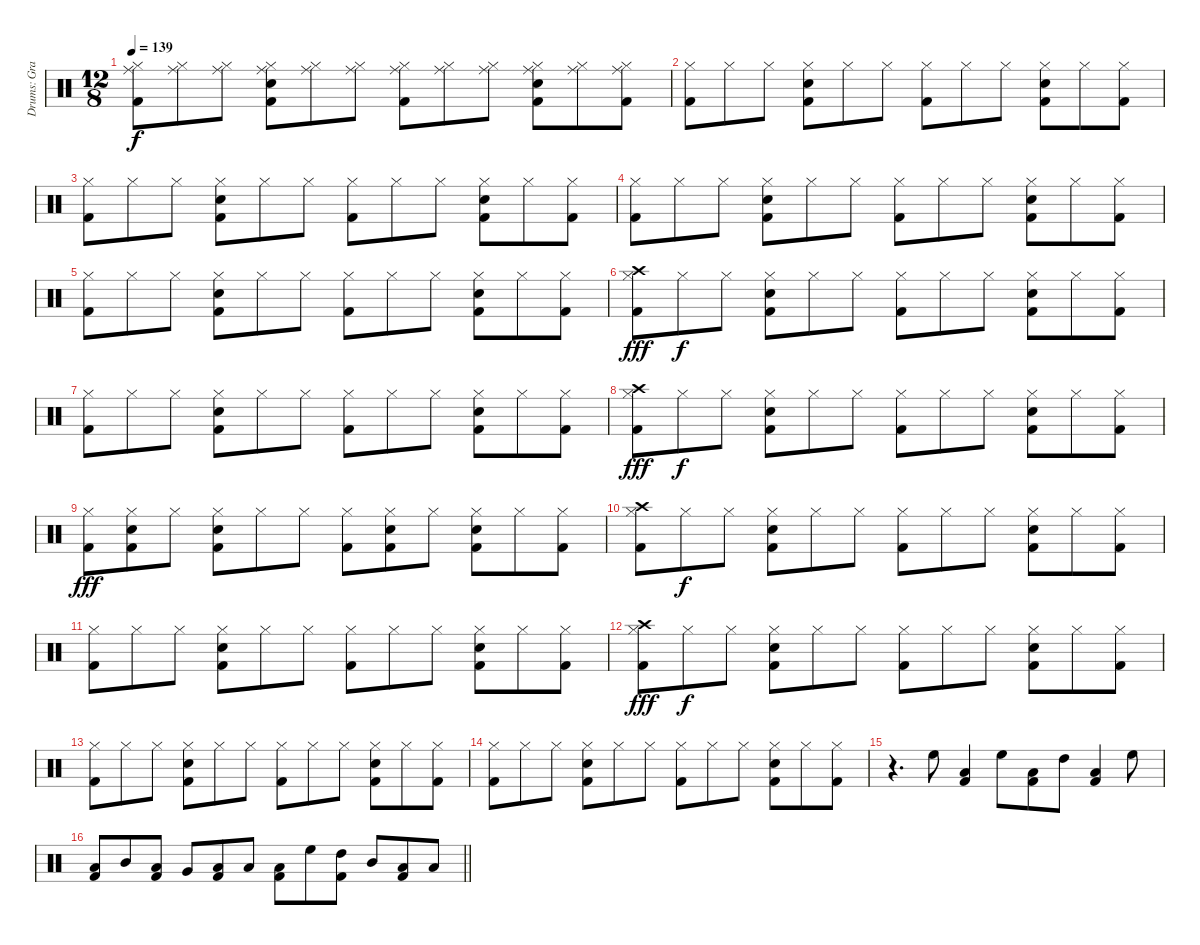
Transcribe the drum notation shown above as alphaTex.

\track ("Drums: Graeme Edge" "Drums: Gra") {instrument percussion}
\staff {score}
\articulation defaults
\ts (12 8)
\tempo 139
\clef neutral
\ks c
("Ride (middle)" "Hi-Hat (closed)" "Kick (hit) 2").8{dy f} ("Ride (middle)" "Hi-Hat (closed)").8 ("Ride (middle)" "Hi-Hat (closed)").8 ("Ride (middle)" "Hi-Hat (closed)" "Snare (hit) 2" "Kick (hit) 2").8 ("Ride (middle)" "Hi-Hat (closed)").8 ("Ride (middle)" "Hi-Hat (closed)").8 ("Ride (middle)" "Hi-Hat (closed)" "Kick (hit) 2").8 ("Ride (middle)" "Hi-Hat (closed)").8 ("Ride (middle)" "Hi-Hat (closed)").8 ("Ride (middle)" "Hi-Hat (closed)" "Snare (hit) 2" "Kick (hit) 2").8 ("Ride (middle)" "Hi-Hat (closed)").8 ("Ride (middle)" "Hi-Hat (closed)" "Kick (hit) 2").8 |
("Hi-Hat (closed)" "Kick (hit) 2").8 "Hi-Hat (closed)".8 "Hi-Hat (closed)".8 ("Hi-Hat (closed)" "Snare (hit) 2" "Kick (hit) 2").8 "Hi-Hat (closed)".8 "Hi-Hat (closed)".8 ("Hi-Hat (closed)" "Kick (hit) 2").8 "Hi-Hat (closed)".8 "Hi-Hat (closed)".8 ("Hi-Hat (closed)" "Snare (hit) 2" "Kick (hit) 2").8 "Hi-Hat (closed)".8 ("Hi-Hat (closed)" "Kick (hit) 2").8 |
("Hi-Hat (closed)" "Kick (hit) 2").8 "Hi-Hat (closed)".8 "Hi-Hat (closed)".8 ("Hi-Hat (closed)" "Snare (hit) 2" "Kick (hit) 2").8 "Hi-Hat (closed)".8 "Hi-Hat (closed)".8 ("Hi-Hat (closed)" "Kick (hit) 2").8 "Hi-Hat (closed)".8 "Hi-Hat (closed)".8 ("Hi-Hat (closed)" "Snare (hit) 2" "Kick (hit) 2").8 "Hi-Hat (closed)".8 ("Hi-Hat (closed)" "Kick (hit) 2").8 |
("Hi-Hat (closed)" "Kick (hit) 2").8 "Hi-Hat (closed)".8 "Hi-Hat (closed)".8 ("Hi-Hat (closed)" "Snare (hit) 2" "Kick (hit) 2").8 "Hi-Hat (closed)".8 "Hi-Hat (closed)".8 ("Hi-Hat (closed)" "Kick (hit) 2").8 "Hi-Hat (closed)".8 "Hi-Hat (closed)".8 ("Hi-Hat (closed)" "Snare (hit) 2" "Kick (hit) 2").8 "Hi-Hat (closed)".8 ("Hi-Hat (closed)" "Kick (hit) 2").8 |
("Hi-Hat (closed)" "Kick (hit) 2").8 "Hi-Hat (closed)".8 "Hi-Hat (closed)".8 ("Hi-Hat (closed)" "Snare (hit) 2" "Kick (hit) 2").8 "Hi-Hat (closed)".8 "Hi-Hat (closed)".8 ("Hi-Hat (closed)" "Kick (hit) 2").8 "Hi-Hat (closed)".8 "Hi-Hat (closed)".8 ("Hi-Hat (closed)" "Snare (hit) 2" "Kick (hit) 2").8 "Hi-Hat (closed)".8 ("Hi-Hat (closed)" "Kick (hit) 2").8 |
("Crash high (hit)" "Hi-Hat (closed)" "Kick (hit) 2").8{dy fff} "Hi-Hat (closed)".8{dy f} "Hi-Hat (closed)".8 ("Hi-Hat (closed)" "Snare (hit) 2" "Kick (hit) 2").8 "Hi-Hat (closed)".8 "Hi-Hat (closed)".8 ("Hi-Hat (closed)" "Kick (hit) 2").8 "Hi-Hat (closed)".8 "Hi-Hat (closed)".8 ("Hi-Hat (closed)" "Snare (hit) 2" "Kick (hit) 2").8 "Hi-Hat (closed)".8 ("Hi-Hat (closed)" "Kick (hit) 2").8 |
("Hi-Hat (closed)" "Kick (hit) 2").8 "Hi-Hat (closed)".8 "Hi-Hat (closed)".8 ("Hi-Hat (closed)" "Snare (hit) 2" "Kick (hit) 2").8 "Hi-Hat (closed)".8 "Hi-Hat (closed)".8 ("Hi-Hat (closed)" "Kick (hit) 2").8 "Hi-Hat (closed)".8 "Hi-Hat (closed)".8 ("Hi-Hat (closed)" "Snare (hit) 2" "Kick (hit) 2").8 "Hi-Hat (closed)".8 ("Hi-Hat (closed)" "Kick (hit) 2").8 |
("Crash high (hit)" "Hi-Hat (closed)" "Kick (hit) 2").8{dy fff} "Hi-Hat (closed)".8{dy f} "Hi-Hat (closed)".8 ("Hi-Hat (closed)" "Snare (hit) 2" "Kick (hit) 2").8 "Hi-Hat (closed)".8 "Hi-Hat (closed)".8 ("Hi-Hat (closed)" "Kick (hit) 2").8 "Hi-Hat (closed)".8 "Hi-Hat (closed)".8 ("Hi-Hat (closed)" "Snare (hit) 2" "Kick (hit) 2").8 "Hi-Hat (closed)".8 ("Hi-Hat (closed)" "Kick (hit) 2").8 |
("Hi-Hat (closed)" "Kick (hit) 2").8{dy fff} ("Hi-Hat (closed)" "Snare (hit) 2" "Kick (hit) 2").8 "Hi-Hat (closed)".8 ("Hi-Hat (closed)" "Snare (hit) 2" "Kick (hit) 2").8 "Hi-Hat (closed)".8 "Hi-Hat (closed)".8 ("Hi-Hat (closed)" "Kick (hit) 2").8 ("Hi-Hat (closed)" "Snare (hit) 2" "Kick (hit) 2").8 "Hi-Hat (closed)".8 ("Hi-Hat (closed)" "Snare (hit) 2" "Kick (hit) 2").8 "Hi-Hat (closed)".8 ("Hi-Hat (closed)" "Kick (hit) 2").8 |
("Crash high (hit)" "Hi-Hat (closed)" "Kick (hit) 2").8 "Hi-Hat (closed)".8{dy f} "Hi-Hat (closed)".8 ("Hi-Hat (closed)" "Snare (hit) 2" "Kick (hit) 2").8 "Hi-Hat (closed)".8 "Hi-Hat (closed)".8 ("Hi-Hat (closed)" "Kick (hit) 2").8 "Hi-Hat (closed)".8 "Hi-Hat (closed)".8 ("Hi-Hat (closed)" "Snare (hit) 2" "Kick (hit) 2").8 "Hi-Hat (closed)".8 ("Hi-Hat (closed)" "Kick (hit) 2").8 |
("Hi-Hat (closed)" "Kick (hit) 2").8 "Hi-Hat (closed)".8 "Hi-Hat (closed)".8 ("Hi-Hat (closed)" "Snare (hit) 2" "Kick (hit) 2").8 "Hi-Hat (closed)".8 "Hi-Hat (closed)".8 ("Hi-Hat (closed)" "Kick (hit) 2").8 "Hi-Hat (closed)".8 "Hi-Hat (closed)".8 ("Hi-Hat (closed)" "Snare (hit) 2" "Kick (hit) 2").8 "Hi-Hat (closed)".8 ("Hi-Hat (closed)" "Kick (hit) 2").8 |
("Crash high (hit)" "Hi-Hat (closed)" "Kick (hit) 2").8{dy fff} "Hi-Hat (closed)".8{dy f} "Hi-Hat (closed)".8 ("Hi-Hat (closed)" "Snare (hit) 2" "Kick (hit) 2").8 "Hi-Hat (closed)".8 "Hi-Hat (closed)".8 ("Hi-Hat (closed)" "Kick (hit) 2").8 "Hi-Hat (closed)".8 "Hi-Hat (closed)".8 ("Hi-Hat (closed)" "Snare (hit) 2" "Kick (hit) 2").8 "Hi-Hat (closed)".8 ("Hi-Hat (closed)" "Kick (hit) 2").8 |
("Hi-Hat (closed)" "Kick (hit) 2").8 "Hi-Hat (closed)".8 "Hi-Hat (closed)".8 ("Hi-Hat (closed)" "Snare (hit) 2" "Kick (hit) 2").8 "Hi-Hat (closed)".8 "Hi-Hat (closed)".8 ("Hi-Hat (closed)" "Kick (hit) 2").8 "Hi-Hat (closed)".8 "Hi-Hat (closed)".8 ("Hi-Hat (closed)" "Snare (hit) 2" "Kick (hit) 2").8 "Hi-Hat (closed)".8 ("Hi-Hat (closed)" "Kick (hit) 2").8 |
("Hi-Hat (closed)" "Kick (hit) 2").8 "Hi-Hat (closed)".8 "Hi-Hat (closed)".8 ("Hi-Hat (closed)" "Snare (hit) 2" "Kick (hit) 2").8 "Hi-Hat (closed)".8 "Hi-Hat (closed)".8 ("Hi-Hat (closed)" "Kick (hit) 2").8 "Hi-Hat (closed)".8 "Hi-Hat (closed)".8 ("Hi-Hat (closed)" "Snare (hit) 2" "Kick (hit) 2").8 "Hi-Hat (closed)".8 ("Hi-Hat (closed)" "Kick (hit) 2").8 |
r.4{d} "High Floor Tom (hit)".8 ("Low Floor Tom (hit)" "Kick (hit) 2").4 "High Floor Tom (hit)".8 ("Low Floor Tom (hit)" "Kick (hit) 2").8 "High Tom (hit)".8 ("Low Floor Tom (hit)" "Kick (hit) 2").4 "High Floor Tom (hit)".8 |
\barLineRight lightlight
("Low Floor Tom (hit)" "Kick (hit) 2").8 "Mid Tom (hit)".8 ("Low Floor Tom (hit)" "Kick (hit) 2").8 "Very Low Tom (hit)".8 ("Low Floor Tom (hit)" "Kick (hit) 2").8 "Low Floor Tom (hit)".8 ("Low Floor Tom (hit)" "Kick (hit) 2").8 "High Floor Tom (hit)".8 ("High Tom (hit)" "Kick (hit) 2").8 "Mid Tom (hit)".8 ("Low Tom (hit)" "Kick (hit) 2").8 "Low Floor Tom (hit)".8
